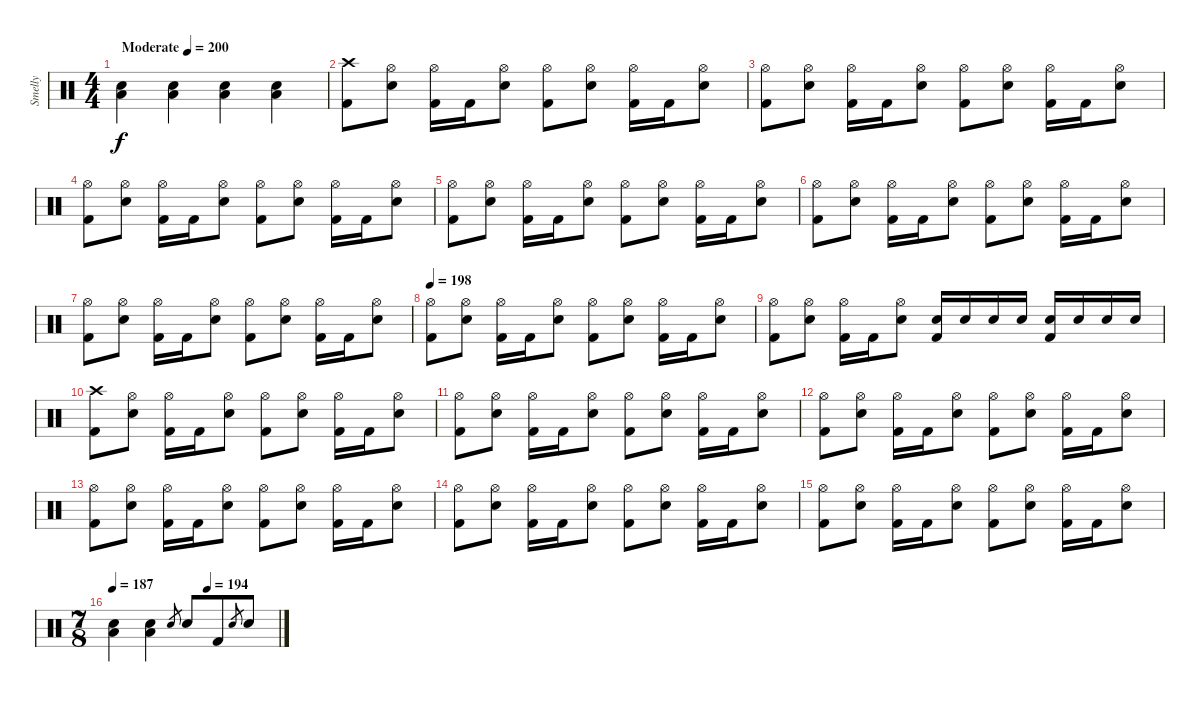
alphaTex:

\track ("Smelly" "Smelly") {instrument percussion}
\staff {score}
\articulation defaults
\ts (4 4)
\tempo (200 "Moderate")
\clef neutral
\ks c
("Electric Snare (hit)" "Low Floor Tom (hit)").4{dy f} ("Electric Snare (hit)" "Low Floor Tom (hit)").4 ("Electric Snare (hit)" "Low Floor Tom (hit)").4 ("Electric Snare (hit)" "Low Floor Tom (hit)").4 |
("Crash high (hit)" "Kick (hit) 2").8 ("Hi-Hat (open)" "Electric Snare (hit)").8 ("Hi-Hat (open)" "Kick (hit) 2").16 "Kick (hit) 2".16 ("Hi-Hat (open)" "Electric Snare (hit)").8 ("Hi-Hat (open)" "Kick (hit) 2").8 ("Hi-Hat (open)" "Electric Snare (hit)").8 ("Hi-Hat (open)" "Kick (hit) 2").16 "Kick (hit) 2".16 ("Hi-Hat (open)" "Electric Snare (hit)").8 |
("Hi-Hat (open)" "Kick (hit) 2").8 ("Hi-Hat (open)" "Electric Snare (hit)").8 ("Hi-Hat (open)" "Kick (hit) 2").16 "Kick (hit) 2".16 ("Hi-Hat (open)" "Electric Snare (hit)").8 ("Hi-Hat (open)" "Kick (hit) 2").8 ("Hi-Hat (open)" "Electric Snare (hit)").8 ("Hi-Hat (open)" "Kick (hit) 2").16 "Kick (hit) 2".16 ("Hi-Hat (open)" "Electric Snare (hit)").8 |
("Hi-Hat (open)" "Kick (hit) 2").8 ("Hi-Hat (open)" "Electric Snare (hit)").8 ("Hi-Hat (open)" "Kick (hit) 2").16 "Kick (hit) 2".16 ("Hi-Hat (open)" "Electric Snare (hit)").8 ("Hi-Hat (open)" "Kick (hit) 2").8 ("Hi-Hat (open)" "Electric Snare (hit)").8 ("Hi-Hat (open)" "Kick (hit) 2").16 "Kick (hit) 2".16 ("Hi-Hat (open)" "Electric Snare (hit)").8 |
("Hi-Hat (open)" "Kick (hit) 2").8 ("Hi-Hat (open)" "Electric Snare (hit)").8 ("Hi-Hat (open)" "Kick (hit) 2").16 "Kick (hit) 2".16 ("Hi-Hat (open)" "Electric Snare (hit)").8 ("Hi-Hat (open)" "Kick (hit) 2").8 ("Hi-Hat (open)" "Electric Snare (hit)").8 ("Hi-Hat (open)" "Kick (hit) 2").16 "Kick (hit) 2".16 ("Hi-Hat (open)" "Electric Snare (hit)").8 |
("Hi-Hat (open)" "Kick (hit) 2").8 ("Hi-Hat (open)" "Electric Snare (hit)").8 ("Hi-Hat (open)" "Kick (hit) 2").16 "Kick (hit) 2".16 ("Hi-Hat (open)" "Electric Snare (hit)").8 ("Hi-Hat (open)" "Kick (hit) 2").8 ("Hi-Hat (open)" "Electric Snare (hit)").8 ("Hi-Hat (open)" "Kick (hit) 2").16 "Kick (hit) 2".16 ("Hi-Hat (open)" "Electric Snare (hit)").8 |
("Hi-Hat (open)" "Kick (hit) 2").8 ("Hi-Hat (open)" "Electric Snare (hit)").8 ("Hi-Hat (open)" "Kick (hit) 2").16 "Kick (hit) 2".16 ("Hi-Hat (open)" "Electric Snare (hit)").8 ("Hi-Hat (open)" "Kick (hit) 2").8 ("Hi-Hat (open)" "Electric Snare (hit)").8 ("Hi-Hat (open)" "Kick (hit) 2").16 "Kick (hit) 2".16 ("Hi-Hat (open)" "Electric Snare (hit)").8 |
\tempo 198
("Hi-Hat (open)" "Kick (hit) 2").8 ("Hi-Hat (open)" "Electric Snare (hit)").8 ("Hi-Hat (open)" "Kick (hit) 2").16 "Kick (hit) 2".16 ("Hi-Hat (open)" "Electric Snare (hit)").8 ("Hi-Hat (open)" "Kick (hit) 2").8 ("Hi-Hat (open)" "Electric Snare (hit)").8 ("Hi-Hat (open)" "Kick (hit) 2").16 "Kick (hit) 2".16 ("Hi-Hat (open)" "Electric Snare (hit)").8 |
("Hi-Hat (open)" "Kick (hit) 2").8 ("Hi-Hat (open)" "Electric Snare (hit)").8 ("Hi-Hat (open)" "Kick (hit) 2").16 "Kick (hit) 2".16 ("Hi-Hat (open)" "Electric Snare (hit)").8 ("Electric Snare (hit)" "Kick (hit) 2").16 "Electric Snare (hit)".16 "Electric Snare (hit)".16 "Electric Snare (hit)".16 ("Electric Snare (hit)" "Kick (hit) 2").16 "Electric Snare (hit)".16 "Electric Snare (hit)".16 "Electric Snare (hit)".16 |
("Crash high (hit)" "Kick (hit) 2").8 ("Hi-Hat (open)" "Electric Snare (hit)").8 ("Hi-Hat (open)" "Kick (hit) 2").16 "Kick (hit) 2".16 ("Hi-Hat (open)" "Electric Snare (hit)").8 ("Hi-Hat (open)" "Kick (hit) 2").8 ("Hi-Hat (open)" "Electric Snare (hit)").8 ("Hi-Hat (open)" "Kick (hit) 2").16 "Kick (hit) 2".16 ("Hi-Hat (open)" "Electric Snare (hit)").8 |
("Hi-Hat (open)" "Kick (hit) 2").8 ("Hi-Hat (open)" "Electric Snare (hit)").8 ("Hi-Hat (open)" "Kick (hit) 2").16 "Kick (hit) 2".16 ("Hi-Hat (open)" "Electric Snare (hit)").8 ("Hi-Hat (open)" "Kick (hit) 2").8 ("Hi-Hat (open)" "Electric Snare (hit)").8 ("Hi-Hat (open)" "Kick (hit) 2").16 "Kick (hit) 2".16 ("Hi-Hat (open)" "Electric Snare (hit)").8 |
("Hi-Hat (open)" "Kick (hit) 2").8 ("Hi-Hat (open)" "Electric Snare (hit)").8 ("Hi-Hat (open)" "Kick (hit) 2").16 "Kick (hit) 2".16 ("Hi-Hat (open)" "Electric Snare (hit)").8 ("Hi-Hat (open)" "Kick (hit) 2").8 ("Hi-Hat (open)" "Electric Snare (hit)").8 ("Hi-Hat (open)" "Kick (hit) 2").16 "Kick (hit) 2".16 ("Hi-Hat (open)" "Electric Snare (hit)").8 |
("Hi-Hat (open)" "Kick (hit) 2").8 ("Hi-Hat (open)" "Electric Snare (hit)").8 ("Hi-Hat (open)" "Kick (hit) 2").16 "Kick (hit) 2".16 ("Hi-Hat (open)" "Electric Snare (hit)").8 ("Hi-Hat (open)" "Kick (hit) 2").8 ("Hi-Hat (open)" "Electric Snare (hit)").8 ("Hi-Hat (open)" "Kick (hit) 2").16 "Kick (hit) 2".16 ("Hi-Hat (open)" "Electric Snare (hit)").8 |
("Hi-Hat (open)" "Kick (hit) 2").8 ("Hi-Hat (open)" "Electric Snare (hit)").8 ("Hi-Hat (open)" "Kick (hit) 2").16 "Kick (hit) 2".16 ("Hi-Hat (open)" "Electric Snare (hit)").8 ("Hi-Hat (open)" "Kick (hit) 2").8 ("Hi-Hat (open)" "Electric Snare (hit)").8 ("Hi-Hat (open)" "Kick (hit) 2").16 "Kick (hit) 2".16 ("Hi-Hat (open)" "Electric Snare (hit)").8 |
("Hi-Hat (open)" "Kick (hit) 2").8 ("Hi-Hat (open)" "Electric Snare (hit)").8 ("Hi-Hat (open)" "Kick (hit) 2").16 "Kick (hit) 2".16 ("Hi-Hat (open)" "Electric Snare (hit)").8 ("Hi-Hat (open)" "Kick (hit) 2").8 ("Hi-Hat (open)" "Electric Snare (hit)").8 ("Hi-Hat (open)" "Kick (hit) 2").16 "Kick (hit) 2".16 ("Hi-Hat (open)" "Electric Snare (hit)").8 |
\ts (7 8)
\tempo 187
\tempo (194 0.5714285714285714)
("Electric Snare (hit)" "Low Floor Tom (hit)").4 ("Electric Snare (hit)" "Low Floor Tom (hit)").4 "Electric Snare (hit)".8{gr} "Electric Snare (hit)".8 "Kick (hit) 2".8 "Electric Snare (hit)".8{gr} "Electric Snare (hit)".8
